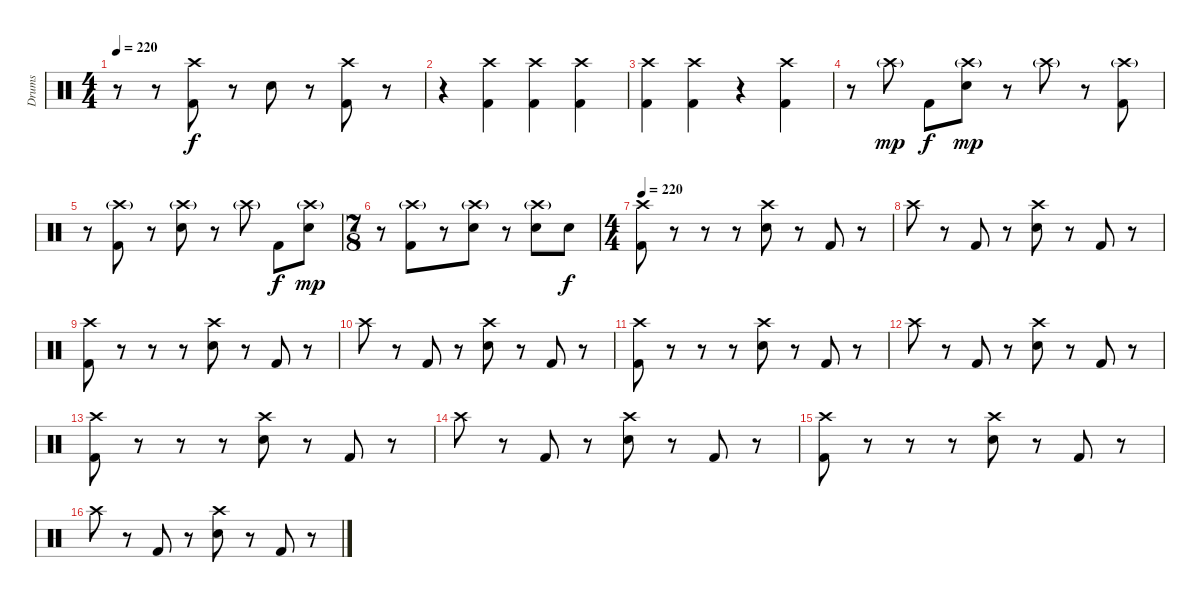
\track ("Drums" "Drums") {instrument percussion}
\staff {score}
\articulation defaults
\ts (4 4)
\tempo 220
\clef neutral
\ks c
r.8{dy f} r.8 ("Crash high (hit)" "Kick (hit) 2").8 r.8 "Electric Snare (hit)".8 r.8 ("Crash high (hit)" "Kick (hit) 2").8 r.8 |
r.4 ("Crash high (hit)" "Kick (hit) 2").4 ("Crash high (hit)" "Kick (hit) 2").4 ("Crash high (hit)" "Kick (hit) 2").4 |
("Crash high (hit)" "Kick (hit) 2").4 ("Crash high (hit)" "Kick (hit) 2").4 r.4 ("Kick (hit) 2" "Crash high (hit)").4 |
r.8 "Crash high (hit)"{g}.8{dy mp} "Kick (hit) 2".8{dy f} ("Crash high (hit)"{g} "Electric Snare (hit)").8{dy mp} r.8 "Crash high (hit)"{g}.8 r.8 ("Crash high (hit)"{g} "Kick (hit) 2").8 |
r.8 ("Crash high (hit)"{g} "Kick (hit) 2").8 r.8 ("Crash high (hit)"{g} "Electric Snare (hit)").8 r.8 "Crash high (hit)"{g}.8 "Kick (hit) 2".8{dy f} ("Crash high (hit)"{g} "Electric Snare (hit)").8{dy mp} |
\ts (7 8)
r.8 ("Crash high (hit)"{g} "Kick (hit) 2").8 r.8 ("Crash high (hit)"{g} "Electric Snare (hit)").8 r.8 ("Crash high (hit)"{g} "Electric Snare (hit)").8 "Electric Snare (hit)".8{dy f} |
\ts (4 4)
\tempo 220
("Crash high (hit)" "Kick (hit) 2").8 r.8 r.8 r.8 ("Crash high (hit)" "Electric Snare (hit)").8 r.8 "Kick (hit) 2".8 r.8 |
"Crash high (hit)".8 r.8 "Kick (hit) 2".8 r.8 ("Crash high (hit)" "Electric Snare (hit)").8 r.8 "Kick (hit) 2".8 r.8 |
("Crash high (hit)" "Kick (hit) 2").8 r.8 r.8 r.8 ("Crash high (hit)" "Electric Snare (hit)").8 r.8 "Kick (hit) 2".8 r.8 |
"Crash high (hit)".8 r.8 "Kick (hit) 2".8 r.8 ("Crash high (hit)" "Electric Snare (hit)").8 r.8 "Kick (hit) 2".8 r.8 |
("Crash high (hit)" "Kick (hit) 2").8 r.8 r.8 r.8 ("Crash high (hit)" "Electric Snare (hit)").8 r.8 "Kick (hit) 2".8 r.8 |
"Crash high (hit)".8 r.8 "Kick (hit) 2".8 r.8 ("Crash high (hit)" "Electric Snare (hit)").8 r.8 "Kick (hit) 2".8 r.8 |
("Crash high (hit)" "Kick (hit) 2").8 r.8 r.8 r.8 ("Crash high (hit)" "Electric Snare (hit)").8 r.8 "Kick (hit) 2".8 r.8 |
"Crash high (hit)".8 r.8 "Kick (hit) 2".8 r.8 ("Crash high (hit)" "Electric Snare (hit)").8 r.8 "Kick (hit) 2".8 r.8 |
("Crash high (hit)" "Kick (hit) 2").8 r.8 r.8 r.8 ("Crash high (hit)" "Electric Snare (hit)").8 r.8 "Kick (hit) 2".8 r.8 |
"Crash high (hit)".8 r.8 "Kick (hit) 2".8 r.8 ("Crash high (hit)" "Electric Snare (hit)").8 r.8 "Kick (hit) 2".8 r.8
